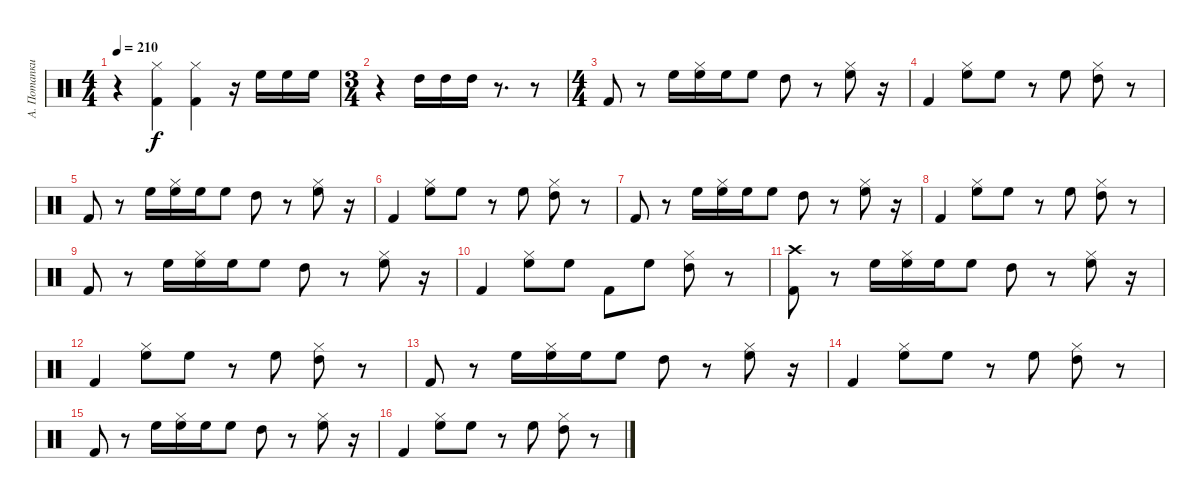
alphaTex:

\track ("А. Потапкин" "А. Потапки") {instrument percussion}
\staff {score}
\articulation defaults
\ts (4 4)
\tempo 210
\clef neutral
\ks c
r.4{dy f} ("Hi-Hat (closed)" "Kick (hit) 2").4 ("Hi-Hat (closed)" "Kick (hit) 2").4 r.16 "High Floor Tom (hit)".16 "High Floor Tom (hit)".16 "High Floor Tom (hit)".16 |
\ts (3 4)
r.4 "High Tom (hit)".16 "High Tom (hit)".16 "High Tom (hit)".16 r.8{d} r.8 |
\ts (4 4)
"Kick (hit) 2".8 r.8 "High Floor Tom (hit)".16 ("Hi-Hat (closed)" "High Floor Tom (hit)").16 "High Floor Tom (hit)".16 "High Floor Tom (hit)".8 "High Tom (hit)".8 r.8 ("Hi-Hat (closed)" "High Floor Tom (hit)").8 r.16 |
"Kick (hit) 2".4 ("Hi-Hat (closed)" "High Floor Tom (hit)").8 "High Floor Tom (hit)".8 r.8 "High Floor Tom (hit)".8 ("Hi-Hat (closed)" "High Tom (hit)").8 r.8 |
"Kick (hit) 2".8 r.8 "High Floor Tom (hit)".16 ("Hi-Hat (closed)" "High Floor Tom (hit)").16 "High Floor Tom (hit)".16 "High Floor Tom (hit)".8 "High Tom (hit)".8 r.8 ("Hi-Hat (closed)" "High Floor Tom (hit)").8 r.16 |
"Kick (hit) 2".4 ("Hi-Hat (closed)" "High Floor Tom (hit)").8 "High Floor Tom (hit)".8 r.8 "High Floor Tom (hit)".8 ("Hi-Hat (closed)" "High Tom (hit)").8 r.8 |
"Kick (hit) 2".8 r.8 "High Floor Tom (hit)".16 ("Hi-Hat (closed)" "High Floor Tom (hit)").16 "High Floor Tom (hit)".16 "High Floor Tom (hit)".8 "High Tom (hit)".8 r.8 ("Hi-Hat (closed)" "High Floor Tom (hit)").8 r.16 |
"Kick (hit) 2".4 ("Hi-Hat (closed)" "High Floor Tom (hit)").8 "High Floor Tom (hit)".8 r.8 "High Floor Tom (hit)".8 ("Hi-Hat (closed)" "High Tom (hit)").8 r.8 |
"Kick (hit) 2".8 r.8 "High Floor Tom (hit)".16 ("Hi-Hat (closed)" "High Floor Tom (hit)").16 "High Floor Tom (hit)".16 "High Floor Tom (hit)".8 "High Tom (hit)".8 r.8 ("Hi-Hat (closed)" "High Floor Tom (hit)").8 r.16 |
"Kick (hit) 2".4 ("Hi-Hat (closed)" "High Floor Tom (hit)").8 "High Floor Tom (hit)".8 "Kick (hit) 2".8 "High Floor Tom (hit)".8 ("Hi-Hat (closed)" "High Tom (hit)").8 r.8 |
("Crash high (hit)" "Kick (hit) 2").8 r.8 "High Floor Tom (hit)".16 ("Hi-Hat (closed)" "High Floor Tom (hit)").16 "High Floor Tom (hit)".16 "High Floor Tom (hit)".8 "High Tom (hit)".8 r.8 ("Hi-Hat (closed)" "High Floor Tom (hit)").8 r.16 |
"Kick (hit) 2".4 ("Hi-Hat (closed)" "High Floor Tom (hit)").8 "High Floor Tom (hit)".8 r.8 "High Floor Tom (hit)".8 ("Hi-Hat (closed)" "High Tom (hit)").8 r.8 |
"Kick (hit) 2".8 r.8 "High Floor Tom (hit)".16 ("Hi-Hat (closed)" "High Floor Tom (hit)").16 "High Floor Tom (hit)".16 "High Floor Tom (hit)".8 "High Tom (hit)".8 r.8 ("Hi-Hat (closed)" "High Floor Tom (hit)").8 r.16 |
"Kick (hit) 2".4 ("Hi-Hat (closed)" "High Floor Tom (hit)").8 "High Floor Tom (hit)".8 r.8 "High Floor Tom (hit)".8 ("Hi-Hat (closed)" "High Tom (hit)").8 r.8 |
"Kick (hit) 2".8 r.8 "High Floor Tom (hit)".16 ("Hi-Hat (closed)" "High Floor Tom (hit)").16 "High Floor Tom (hit)".16 "High Floor Tom (hit)".8 "High Tom (hit)".8 r.8 ("Hi-Hat (closed)" "High Floor Tom (hit)").8 r.16 |
"Kick (hit) 2".4 ("Hi-Hat (closed)" "High Floor Tom (hit)").8 "High Floor Tom (hit)".8 r.8 "High Floor Tom (hit)".8 ("Hi-Hat (closed)" "High Tom (hit)").8 r.8
